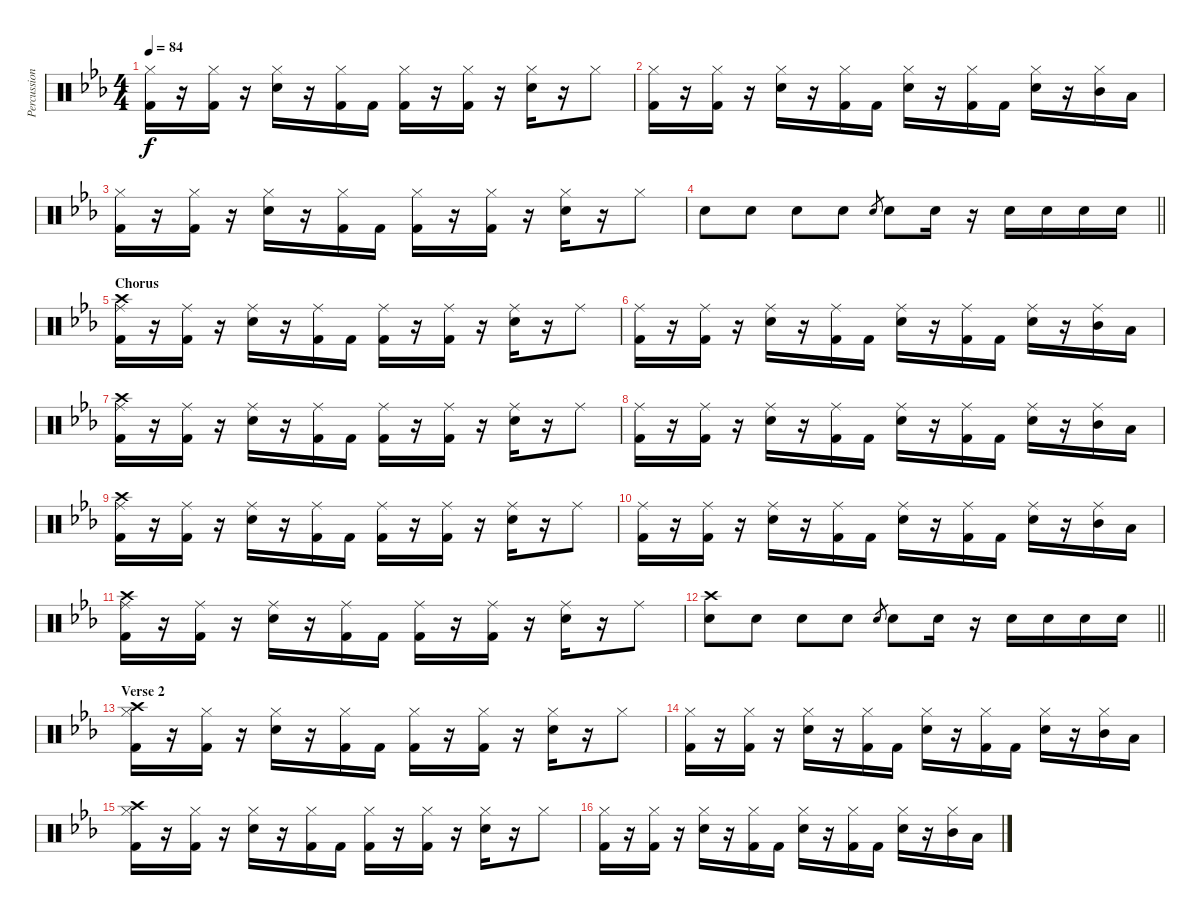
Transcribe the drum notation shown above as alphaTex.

\track ("Percussion" "Percussion") {instrument percussion}
\staff {score}
\articulation defaults
\ts (4 4)
\tempo 84
\clef neutral
\ks eb
("Hi-Hat (closed)" "Kick (hit) 2").16{dy f} r.16 ("Hi-Hat (closed)" "Kick (hit) 2").16 r.16 ("Hi-Hat (closed)" "Electric Snare (hit)").16 r.16 ("Hi-Hat (closed)" "Kick (hit) 2").16 "Kick (hit) 2".16 ("Hi-Hat (closed)" "Kick (hit) 2").16 r.16 ("Hi-Hat (closed)" "Kick (hit) 2").16 r.16 ("Hi-Hat (closed)" "Electric Snare (hit)").16 r.16 "Hi-Hat (closed)".8 |
("Hi-Hat (closed)" "Kick (hit) 2").16 r.16 ("Hi-Hat (closed)" "Kick (hit) 2").16 r.16 ("Hi-Hat (closed)" "Electric Snare (hit)").16 r.16 ("Hi-Hat (closed)" "Kick (hit) 2").16 "Kick (hit) 2".16 ("Hi-Hat (closed)" "Electric Snare (hit)").16 r.16 ("Hi-Hat (closed)" "Kick (hit) 2").16 "Kick (hit) 2".16 ("Hi-Hat (closed)" "Electric Snare (hit)").16 r.16 ("Hi-Hat (closed)" "Mid Tom (hit)").16 "Low Tom (hit)".16 |
("Hi-Hat (closed)" "Kick (hit) 2").16 r.16 ("Hi-Hat (closed)" "Kick (hit) 2").16 r.16 ("Hi-Hat (closed)" "Electric Snare (hit)").16 r.16 ("Hi-Hat (closed)" "Kick (hit) 2").16 "Kick (hit) 2".16 ("Hi-Hat (closed)" "Kick (hit) 2").16 r.16 ("Hi-Hat (closed)" "Kick (hit) 2").16 r.16 ("Hi-Hat (closed)" "Electric Snare (hit)").16 r.16 "Hi-Hat (closed)".8 |
\barLineRight lightlight "Electric Snare (hit)".8 "Electric Snare (hit)".8 "Electric Snare (hit)".8 "Electric Snare (hit)".8 "Electric Snare (hit)".8{gr} "Electric Snare (hit)".8 "Electric Snare (hit)".16
r.16 "Electric Snare (hit)".16 "Electric Snare (hit)".16 "Electric Snare (hit)".16 "Electric Snare (hit)".16 |
\section ("" "Chorus")
("Ride (middle)" "Crash high (hit)" "Kick (hit) 2").16 r.16 ("Ride (middle)" "Kick (hit) 2").16 r.16 ("Ride (middle)" "Electric Snare (hit)").16 r.16 ("Ride (middle)" "Kick (hit) 2").16 "Kick (hit) 2".16 ("Ride (middle)" "Kick (hit) 2").16 r.16 ("Ride (middle)" "Kick (hit) 2").16 r.16 ("Ride (middle)" "Electric Snare (hit)").16 r.16 "Ride (middle)".8 |
("Ride (middle)" "Kick (hit) 2").16 r.16 ("Ride (middle)" "Kick (hit) 2").16 r.16 ("Ride (middle)" "Electric Snare (hit)").16 r.16 ("Ride (middle)" "Kick (hit) 2").16 "Kick (hit) 2".16 ("Ride (middle)" "Electric Snare (hit)").16 r.16 ("Ride (middle)" "Kick (hit) 2").16 "Kick (hit) 2".16 ("Ride (middle)" "Electric Snare (hit)").16 r.16 ("Ride (middle)" "Mid Tom (hit)").16 "Low Tom (hit)".16 |
("Ride (middle)" "Crash high (hit)" "Kick (hit) 2").16 r.16 ("Ride (middle)" "Kick (hit) 2").16 r.16 ("Ride (middle)" "Electric Snare (hit)").16 r.16 ("Ride (middle)" "Kick (hit) 2").16 "Kick (hit) 2".16 ("Ride (middle)" "Kick (hit) 2").16 r.16 ("Ride (middle)" "Kick (hit) 2").16 r.16 ("Ride (middle)" "Electric Snare (hit)").16 r.16 "Ride (middle)".8 |
("Ride (middle)" "Kick (hit) 2").16 r.16 ("Ride (middle)" "Kick (hit) 2").16 r.16 ("Ride (middle)" "Electric Snare (hit)").16 r.16 ("Ride (middle)" "Kick (hit) 2").16 "Kick (hit) 2".16 ("Ride (middle)" "Electric Snare (hit)").16 r.16 ("Ride (middle)" "Kick (hit) 2").16 "Kick (hit) 2".16 ("Ride (middle)" "Electric Snare (hit)").16 r.16 ("Ride (middle)" "Mid Tom (hit)").16 "Low Tom (hit)".16 |
("Ride (middle)" "Crash high (hit)" "Kick (hit) 2").16 r.16 ("Ride (middle)" "Kick (hit) 2").16 r.16 ("Ride (middle)" "Electric Snare (hit)").16 r.16 ("Ride (middle)" "Kick (hit) 2").16 "Kick (hit) 2".16 ("Ride (middle)" "Kick (hit) 2").16 r.16 ("Ride (middle)" "Kick (hit) 2").16 r.16 ("Ride (middle)" "Electric Snare (hit)").16 r.16 "Ride (middle)".8 |
("Ride (middle)" "Kick (hit) 2").16 r.16 ("Ride (middle)" "Kick (hit) 2").16 r.16 ("Ride (middle)" "Electric Snare (hit)").16 r.16 ("Ride (middle)" "Kick (hit) 2").16 "Kick (hit) 2".16 ("Ride (middle)" "Electric Snare (hit)").16 r.16 ("Ride (middle)" "Kick (hit) 2").16 "Kick (hit) 2".16 ("Ride (middle)" "Electric Snare (hit)").16 r.16 ("Ride (middle)" "Mid Tom (hit)").16 "Low Tom (hit)".16 |
("Ride (middle)" "Crash high (hit)" "Kick (hit) 2").16 r.16 ("Ride (middle)" "Kick (hit) 2").16 r.16 ("Ride (middle)" "Electric Snare (hit)").16 r.16 ("Ride (middle)" "Kick (hit) 2").16 "Kick (hit) 2".16 ("Ride (middle)" "Kick (hit) 2").16 r.16 ("Ride (middle)" "Kick (hit) 2").16 r.16 ("Ride (middle)" "Electric Snare (hit)").16 r.16 "Ride (middle)".8 |
\barLineRight lightlight
("Crash high (hit)" "Electric Snare (hit)").8 "Electric Snare (hit)".8 "Electric Snare (hit)".8 "Electric Snare (hit)".8 "Electric Snare (hit)".8{gr} "Electric Snare (hit)".8 "Electric Snare (hit)".16 r.16 "Electric Snare (hit)".16 "Electric Snare (hit)".16 "Electric Snare (hit)".16 "Electric Snare (hit)".16 |
\section ("" "Verse 2")
("Hi-Hat (closed)" "Crash high (hit)" "Kick (hit) 2").16 r.16 ("Hi-Hat (closed)" "Kick (hit) 2").16 r.16 ("Hi-Hat (closed)" "Electric Snare (hit)").16 r.16 ("Hi-Hat (closed)" "Kick (hit) 2").16 "Kick (hit) 2".16 ("Hi-Hat (closed)" "Kick (hit) 2").16 r.16 ("Hi-Hat (closed)" "Kick (hit) 2").16 r.16 ("Hi-Hat (closed)" "Electric Snare (hit)").16 r.16 "Hi-Hat (closed)".8 |
("Hi-Hat (closed)" "Kick (hit) 2").16 r.16 ("Hi-Hat (closed)" "Kick (hit) 2").16 r.16 ("Hi-Hat (closed)" "Electric Snare (hit)").16 r.16 ("Hi-Hat (closed)" "Kick (hit) 2").16 "Kick (hit) 2".16 ("Hi-Hat (closed)" "Electric Snare (hit)").16 r.16 ("Hi-Hat (closed)" "Kick (hit) 2").16 "Kick (hit) 2".16 ("Hi-Hat (closed)" "Electric Snare (hit)").16 r.16 ("Hi-Hat (closed)" "Mid Tom (hit)").16 "Low Tom (hit)".16 |
("Hi-Hat (closed)" "Crash high (hit)" "Kick (hit) 2").16 r.16 ("Hi-Hat (closed)" "Kick (hit) 2").16 r.16 ("Hi-Hat (closed)" "Electric Snare (hit)").16 r.16 ("Hi-Hat (closed)" "Kick (hit) 2").16 "Kick (hit) 2".16 ("Hi-Hat (closed)" "Kick (hit) 2").16 r.16 ("Hi-Hat (closed)" "Kick (hit) 2").16 r.16 ("Hi-Hat (closed)" "Electric Snare (hit)").16 r.16 "Hi-Hat (closed)".8 |
("Hi-Hat (closed)" "Kick (hit) 2").16 r.16 ("Hi-Hat (closed)" "Kick (hit) 2").16 r.16 ("Hi-Hat (closed)" "Electric Snare (hit)").16 r.16 ("Hi-Hat (closed)" "Kick (hit) 2").16 "Kick (hit) 2".16 ("Hi-Hat (closed)" "Electric Snare (hit)").16 r.16 ("Hi-Hat (closed)" "Kick (hit) 2").16 "Kick (hit) 2".16 ("Hi-Hat (closed)" "Electric Snare (hit)").16 r.16 ("Hi-Hat (closed)" "Mid Tom (hit)").16 "Low Tom (hit)".16
